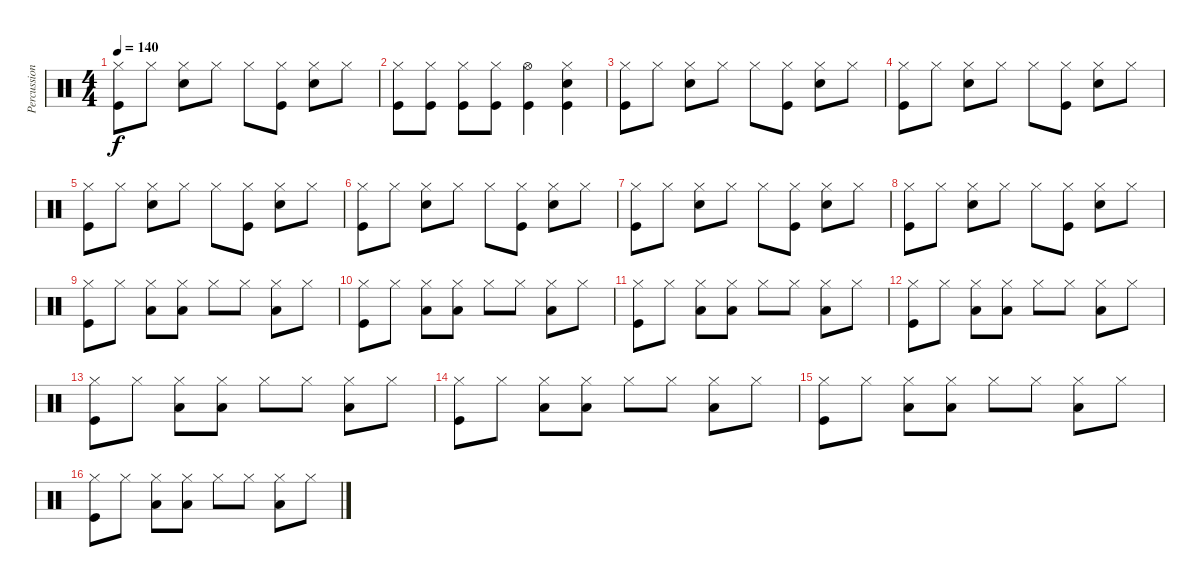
\track ("Percussion" "Percussion") {instrument percussion}
\staff {score}
\articulation defaults
\ts (4 4)
\tempo 140
\clef neutral
\ks c
("Hi-Hat (closed)" "Kick (hit)").8{dy f} "Hi-Hat (closed)".8 ("Hi-Hat (closed)" "Snare (hit) 2").8 "Hi-Hat (closed)".8 "Hi-Hat (closed)".8 ("Hi-Hat (closed)" "Kick (hit)").8 ("Hi-Hat (closed)" "Snare (hit) 2").8 "Hi-Hat (closed)".8 |
("Hi-Hat (closed)" "Kick (hit)").8 ("Hi-Hat (closed)" "Kick (hit)").8 ("Hi-Hat (closed)" "Kick (hit)").8 ("Hi-Hat (closed)" "Kick (hit)").8 ("Hi-Hat (open)" "Kick (hit)").4 ("Hi-Hat (closed)" "Snare (hit) 2" "Kick (hit)").4 |
("Hi-Hat (closed)" "Kick (hit)").8 "Hi-Hat (closed)".8 ("Hi-Hat (closed)" "Snare (hit) 2").8 "Hi-Hat (closed)".8 "Hi-Hat (closed)".8 ("Hi-Hat (closed)" "Kick (hit)").8 ("Hi-Hat (closed)" "Snare (hit) 2").8 "Hi-Hat (closed)".8 |
("Hi-Hat (closed)" "Kick (hit)").8 "Hi-Hat (closed)".8 ("Hi-Hat (closed)" "Snare (hit) 2").8 "Hi-Hat (closed)".8 "Hi-Hat (closed)".8 ("Hi-Hat (closed)" "Kick (hit)").8 ("Hi-Hat (closed)" "Snare (hit) 2").8 "Hi-Hat (closed)".8 |
("Hi-Hat (closed)" "Kick (hit)").8 "Hi-Hat (closed)".8 ("Hi-Hat (closed)" "Snare (hit) 2").8 "Hi-Hat (closed)".8 "Hi-Hat (closed)".8 ("Hi-Hat (closed)" "Kick (hit)").8 ("Hi-Hat (closed)" "Snare (hit) 2").8 "Hi-Hat (closed)".8 |
("Hi-Hat (closed)" "Kick (hit)").8 "Hi-Hat (closed)".8 ("Hi-Hat (closed)" "Snare (hit) 2").8 "Hi-Hat (closed)".8 "Hi-Hat (closed)".8 ("Hi-Hat (closed)" "Kick (hit)").8 ("Hi-Hat (closed)" "Snare (hit) 2").8 "Hi-Hat (closed)".8 |
("Hi-Hat (closed)" "Kick (hit)").8 "Hi-Hat (closed)".8 ("Hi-Hat (closed)" "Snare (hit) 2").8 "Hi-Hat (closed)".8 "Hi-Hat (closed)".8 ("Hi-Hat (closed)" "Kick (hit)").8 ("Hi-Hat (closed)" "Snare (hit) 2").8 "Hi-Hat (closed)".8 |
("Hi-Hat (closed)" "Kick (hit)").8 "Hi-Hat (closed)".8 ("Hi-Hat (closed)" "Snare (hit) 2").8 "Hi-Hat (closed)".8 "Hi-Hat (closed)".8 ("Hi-Hat (closed)" "Kick (hit)").8 ("Hi-Hat (closed)" "Snare (hit) 2").8 "Hi-Hat (closed)".8 |
("Hi-Hat (closed)" "Kick (hit)").8 "Hi-Hat (closed)".8 ("Hi-Hat (closed)" "Low Tom (hit)").8 ("Hi-Hat (closed)" "Low Tom (hit)").8 "Hi-Hat (closed)".8 "Hi-Hat (closed)".8 ("Hi-Hat (closed)" "Low Tom (hit)").8 "Hi-Hat (closed)".8 |
("Hi-Hat (closed)" "Kick (hit)").8 "Hi-Hat (closed)".8 ("Hi-Hat (closed)" "Low Tom (hit)").8 ("Hi-Hat (closed)" "Low Tom (hit)").8 "Hi-Hat (closed)".8 "Hi-Hat (closed)".8 ("Hi-Hat (closed)" "Low Tom (hit)").8 "Hi-Hat (closed)".8 |
("Hi-Hat (closed)" "Kick (hit)").8 "Hi-Hat (closed)".8 ("Hi-Hat (closed)" "Low Tom (hit)").8 ("Hi-Hat (closed)" "Low Tom (hit)").8 "Hi-Hat (closed)".8 "Hi-Hat (closed)".8 ("Hi-Hat (closed)" "Low Tom (hit)").8 "Hi-Hat (closed)".8 |
("Hi-Hat (closed)" "Kick (hit)").8 "Hi-Hat (closed)".8 ("Hi-Hat (closed)" "Low Tom (hit)").8 ("Hi-Hat (closed)" "Low Tom (hit)").8 "Hi-Hat (closed)".8 "Hi-Hat (closed)".8 ("Hi-Hat (closed)" "Low Tom (hit)").8 "Hi-Hat (closed)".8 |
("Hi-Hat (closed)" "Kick (hit)").8 "Hi-Hat (closed)".8 ("Hi-Hat (closed)" "Low Tom (hit)").8 ("Hi-Hat (closed)" "Low Tom (hit)").8 "Hi-Hat (closed)".8 "Hi-Hat (closed)".8 ("Hi-Hat (closed)" "Low Tom (hit)").8 "Hi-Hat (closed)".8 |
("Hi-Hat (closed)" "Kick (hit)").8 "Hi-Hat (closed)".8 ("Hi-Hat (closed)" "Low Tom (hit)").8 ("Hi-Hat (closed)" "Low Tom (hit)").8 "Hi-Hat (closed)".8 "Hi-Hat (closed)".8 ("Hi-Hat (closed)" "Low Tom (hit)").8 "Hi-Hat (closed)".8 |
("Hi-Hat (closed)" "Kick (hit)").8 "Hi-Hat (closed)".8 ("Hi-Hat (closed)" "Low Tom (hit)").8 ("Hi-Hat (closed)" "Low Tom (hit)").8 "Hi-Hat (closed)".8 "Hi-Hat (closed)".8 ("Hi-Hat (closed)" "Low Tom (hit)").8 "Hi-Hat (closed)".8 |
("Hi-Hat (closed)" "Kick (hit)").8 "Hi-Hat (closed)".8 ("Hi-Hat (closed)" "Low Tom (hit)").8 ("Hi-Hat (closed)" "Low Tom (hit)").8 "Hi-Hat (closed)".8 "Hi-Hat (closed)".8 ("Hi-Hat (closed)" "Low Tom (hit)").8 "Hi-Hat (closed)".8
